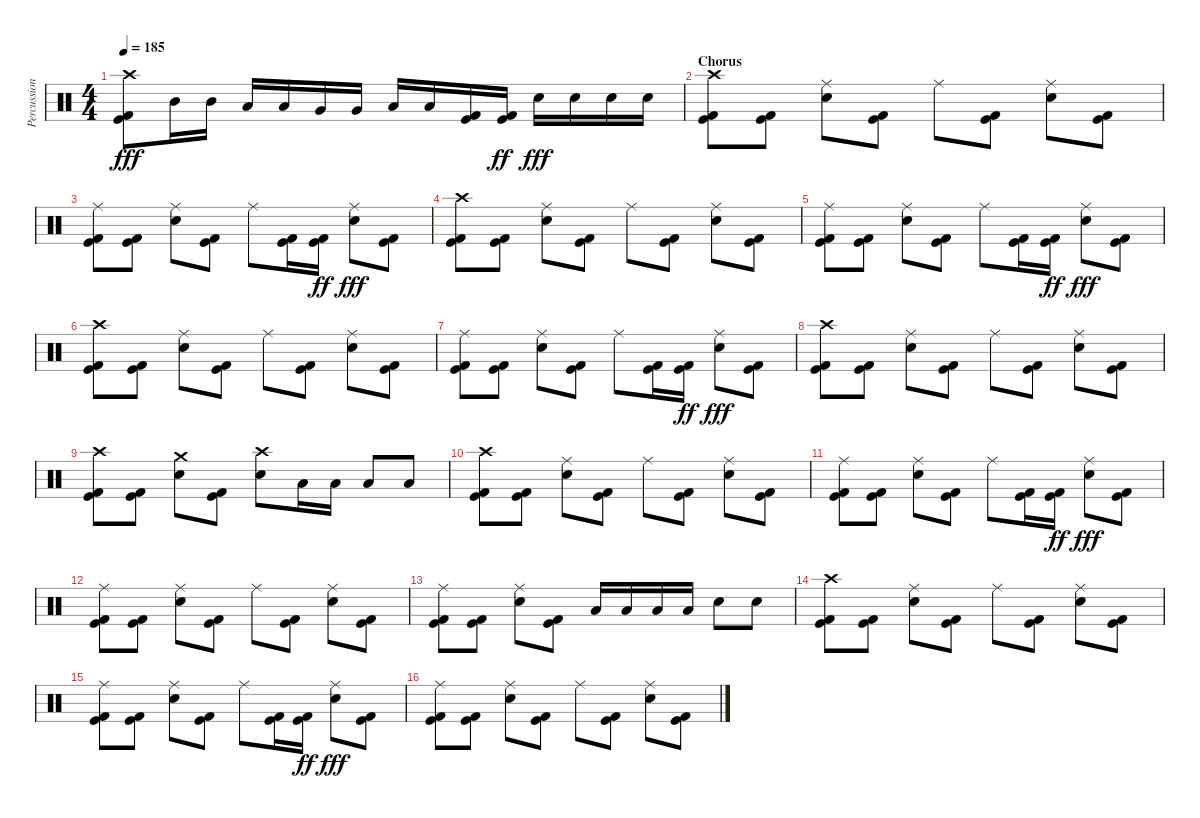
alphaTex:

\track ("Percussion" "Percussion") {instrument percussion}
\staff {score}
\articulation defaults
\ts (4 4)
\tempo 185
\clef neutral
\ks c
("Crash high (hit)" "Kick (hit)" "Kick (hit) 2").8{dy fff} "Mid Tom (hit)".16 "Mid Tom (hit)".16 "Low Tom (hit)".16 "Low Tom (hit)".16 "Very Low Tom (hit)".16 "Very Low Tom (hit)".16 "Low Floor Tom (hit)".16 "Low Floor Tom (hit)".16 ("Kick (hit)" "Kick (hit) 2").16 ("Kick (hit)" "Kick (hit) 2").16{dy ff} "Snare (hit) 2".16{dy fff} "Snare (hit) 2".16 "Snare (hit) 2".16 "Snare (hit) 2".16 |
\section ("" "Chorus")
("Crash high (hit)" "Kick (hit)" "Kick (hit) 2").8 ("Kick (hit)" "Kick (hit) 2").8 ("Ride (middle)" "Snare (hit) 2").8 ("Kick (hit)" "Kick (hit) 2").8 "Ride (middle)".8 ("Kick (hit)" "Kick (hit) 2").8 ("Ride (middle)" "Snare (hit) 2").8 ("Kick (hit)" "Kick (hit) 2").8 |
("Ride (middle)" "Kick (hit)" "Kick (hit) 2").8 ("Kick (hit)" "Kick (hit) 2").8 ("Ride (middle)" "Snare (hit) 2").8 ("Kick (hit)" "Kick (hit) 2").8 "Ride (middle)".8 ("Kick (hit)" "Kick (hit) 2").16 ("Kick (hit)" "Kick (hit) 2").16{dy ff} ("Ride (middle)" "Snare (hit) 2").8{dy fff} ("Kick (hit)" "Kick (hit) 2").8 |
("Crash high (hit)" "Kick (hit)" "Kick (hit) 2").8 ("Kick (hit)" "Kick (hit) 2").8 ("Ride (middle)" "Snare (hit) 2").8 ("Kick (hit)" "Kick (hit) 2").8 "Ride (middle)".8 ("Kick (hit)" "Kick (hit) 2").8 ("Ride (middle)" "Snare (hit) 2").8 ("Kick (hit)" "Kick (hit) 2").8 |
("Ride (middle)" "Kick (hit)" "Kick (hit) 2").8 ("Kick (hit)" "Kick (hit) 2").8 ("Ride (middle)" "Snare (hit) 2").8 ("Kick (hit)" "Kick (hit) 2").8 "Ride (middle)".8 ("Kick (hit)" "Kick (hit) 2").16 ("Kick (hit)" "Kick (hit) 2").16{dy ff} ("Ride (middle)" "Snare (hit) 2").8{dy fff} ("Kick (hit)" "Kick (hit) 2").8 |
("Crash high (hit)" "Kick (hit)" "Kick (hit) 2").8 ("Kick (hit)" "Kick (hit) 2").8 ("Ride (middle)" "Snare (hit) 2").8 ("Kick (hit)" "Kick (hit) 2").8 "Ride (middle)".8 ("Kick (hit)" "Kick (hit) 2").8 ("Ride (middle)" "Snare (hit) 2").8 ("Kick (hit)" "Kick (hit) 2").8 |
("Ride (middle)" "Kick (hit)" "Kick (hit) 2").8 ("Kick (hit)" "Kick (hit) 2").8 ("Ride (middle)" "Snare (hit) 2").8 ("Kick (hit)" "Kick (hit) 2").8 "Ride (middle)".8 ("Kick (hit)" "Kick (hit) 2").16 ("Kick (hit)" "Kick (hit) 2").16{dy ff} ("Ride (middle)" "Snare (hit) 2").8{dy fff} ("Kick (hit)" "Kick (hit) 2").8 |
("Crash high (hit)" "Kick (hit)" "Kick (hit) 2").8 ("Kick (hit)" "Kick (hit) 2").8 ("Ride (middle)" "Snare (hit) 2").8 ("Kick (hit)" "Kick (hit) 2").8 "Ride (middle)".8 ("Kick (hit)" "Kick (hit) 2").8 ("Ride (middle)" "Snare (hit) 2").8 ("Kick (hit)" "Kick (hit) 2").8 |
("Crash high (hit)" "Kick (hit)" "Kick (hit) 2").8 ("Kick (hit)" "Kick (hit) 2").8 ("Crash medium (hit)" "Snare (hit) 2").8 ("Kick (hit)" "Kick (hit) 2").8 ("Crash high (hit)" "Snare (hit) 2").8 "Low Tom (hit)".16 "Low Tom (hit)".16 "Low Floor Tom (hit)".8 "Low Floor Tom (hit)".8 |
("Crash high (hit)" "Kick (hit)" "Kick (hit) 2").8 ("Kick (hit)" "Kick (hit) 2").8 ("Ride (middle)" "Snare (hit) 2").8 ("Kick (hit)" "Kick (hit) 2").8 "Ride (middle)".8 ("Kick (hit)" "Kick (hit) 2").8 ("Ride (middle)" "Snare (hit) 2").8 ("Kick (hit)" "Kick (hit) 2").8 |
("Ride (middle)" "Kick (hit)" "Kick (hit) 2").8 ("Kick (hit)" "Kick (hit) 2").8 ("Ride (middle)" "Snare (hit) 2").8 ("Kick (hit)" "Kick (hit) 2").8 "Ride (middle)".8 ("Kick (hit)" "Kick (hit) 2").16 ("Kick (hit)" "Kick (hit) 2").16{dy ff} ("Ride (middle)" "Snare (hit) 2").8{dy fff} ("Kick (hit)" "Kick (hit) 2").8 |
("Ride (middle)" "Kick (hit)" "Kick (hit) 2").8 ("Kick (hit)" "Kick (hit) 2").8 ("Ride (middle)" "Snare (hit) 2").8 ("Kick (hit)" "Kick (hit) 2").8 "Ride (middle)".8 ("Kick (hit)" "Kick (hit) 2").8 ("Ride (middle)" "Snare (hit) 2").8 ("Kick (hit)" "Kick (hit) 2").8 |
("Ride (middle)" "Kick (hit)" "Kick (hit) 2").8 ("Kick (hit)" "Kick (hit) 2").8 ("Ride (middle)" "Snare (hit) 2").8 ("Kick (hit)" "Kick (hit) 2").8 "Low Tom (hit)".16 "Low Tom (hit)".16 "Low Tom (hit)".16 "Low Tom (hit)".16 "Snare (hit) 2".8 "Snare (hit) 2".8 |
("Crash high (hit)" "Kick (hit)" "Kick (hit) 2").8 ("Kick (hit)" "Kick (hit) 2").8 ("Ride (middle)" "Snare (hit) 2").8 ("Kick (hit)" "Kick (hit) 2").8 "Ride (middle)".8 ("Kick (hit)" "Kick (hit) 2").8 ("Ride (middle)" "Snare (hit) 2").8 ("Kick (hit)" "Kick (hit) 2").8 |
("Ride (middle)" "Kick (hit)" "Kick (hit) 2").8 ("Kick (hit)" "Kick (hit) 2").8 ("Ride (middle)" "Snare (hit) 2").8 ("Kick (hit)" "Kick (hit) 2").8 "Ride (middle)".8 ("Kick (hit)" "Kick (hit) 2").16 ("Kick (hit)" "Kick (hit) 2").16{dy ff} ("Ride (middle)" "Snare (hit) 2").8{dy fff} ("Kick (hit)" "Kick (hit) 2").8 |
("Ride (middle)" "Kick (hit)" "Kick (hit) 2").8 ("Kick (hit)" "Kick (hit) 2").8 ("Ride (middle)" "Snare (hit) 2").8 ("Kick (hit)" "Kick (hit) 2").8 "Ride (middle)".8 ("Kick (hit)" "Kick (hit) 2").8 ("Ride (middle)" "Snare (hit) 2").8 ("Kick (hit)" "Kick (hit) 2").8
